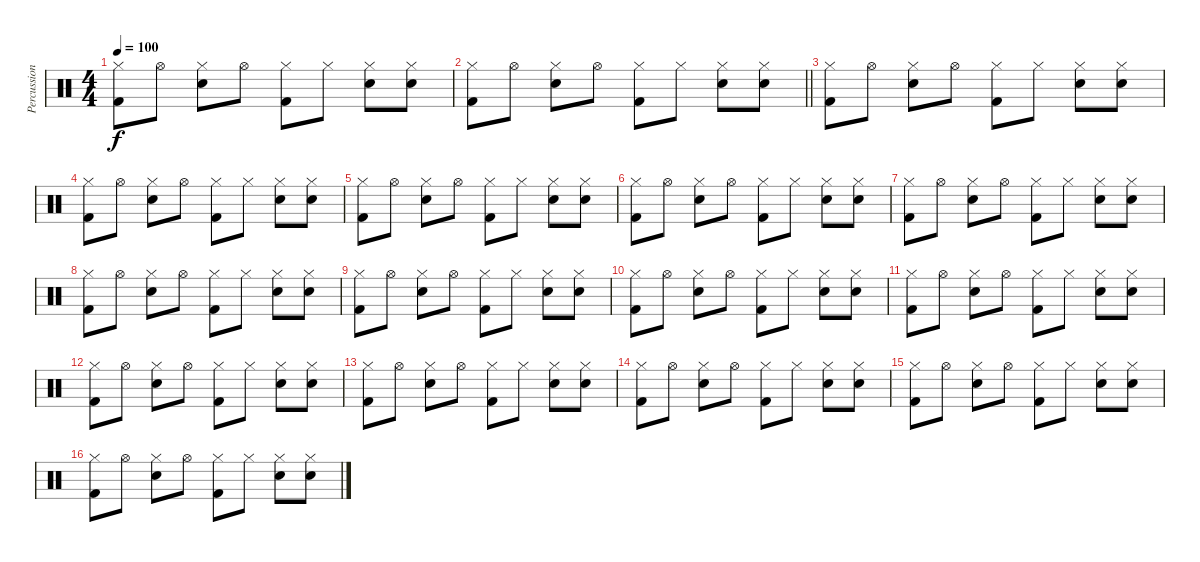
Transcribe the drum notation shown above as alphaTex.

\track ("Percussions" "Percussion") {instrument percussion}
\staff {score}
\articulation defaults
\ts (4 4)
\tempo 100
\clef neutral
\ks c
("Hi-Hat (closed)" "Kick (hit) 2").8{dy f} "Hi-Hat (open)".8 ("Hi-Hat (closed)" "Snare (hit) 2").8 "Hi-Hat (open)".8 ("Hi-Hat (closed)" "Kick (hit) 2").8 "Hi-Hat (closed)".8 ("Hi-Hat (closed)" "Snare (hit) 2").8 ("Hi-Hat (closed)" "Snare (hit) 2").8 |
\barLineRight lightlight
("Hi-Hat (closed)" "Kick (hit) 2").8 "Hi-Hat (open)".8 ("Hi-Hat (closed)" "Snare (hit) 2").8 "Hi-Hat (open)".8 ("Hi-Hat (closed)" "Kick (hit) 2").8 "Hi-Hat (closed)".8 ("Hi-Hat (closed)" "Snare (hit) 2").8 ("Hi-Hat (closed)" "Snare (hit) 2").8 |
("Hi-Hat (closed)" "Kick (hit) 2").8 "Hi-Hat (open)".8 ("Hi-Hat (closed)" "Snare (hit) 2").8 "Hi-Hat (open)".8 ("Hi-Hat (closed)" "Kick (hit) 2").8 "Hi-Hat (closed)".8 ("Hi-Hat (closed)" "Snare (hit) 2").8 ("Hi-Hat (closed)" "Snare (hit) 2").8 |
("Hi-Hat (closed)" "Kick (hit) 2").8 "Hi-Hat (open)".8 ("Hi-Hat (closed)" "Snare (hit) 2").8 "Hi-Hat (open)".8 ("Hi-Hat (closed)" "Kick (hit) 2").8 "Hi-Hat (closed)".8 ("Hi-Hat (closed)" "Snare (hit) 2").8 ("Hi-Hat (closed)" "Snare (hit) 2").8 |
("Hi-Hat (closed)" "Kick (hit) 2").8 "Hi-Hat (open)".8 ("Hi-Hat (closed)" "Snare (hit) 2").8 "Hi-Hat (open)".8 ("Hi-Hat (closed)" "Kick (hit) 2").8 "Hi-Hat (closed)".8 ("Hi-Hat (closed)" "Snare (hit) 2").8 ("Hi-Hat (closed)" "Snare (hit) 2").8 |
("Hi-Hat (closed)" "Kick (hit) 2").8 "Hi-Hat (open)".8 ("Hi-Hat (closed)" "Snare (hit) 2").8 "Hi-Hat (open)".8 ("Hi-Hat (closed)" "Kick (hit) 2").8 "Hi-Hat (closed)".8 ("Hi-Hat (closed)" "Snare (hit) 2").8 ("Hi-Hat (closed)" "Snare (hit) 2").8 |
("Hi-Hat (closed)" "Kick (hit) 2").8 "Hi-Hat (open)".8 ("Hi-Hat (closed)" "Snare (hit) 2").8 "Hi-Hat (open)".8 ("Hi-Hat (closed)" "Kick (hit) 2").8 "Hi-Hat (closed)".8 ("Hi-Hat (closed)" "Snare (hit) 2").8 ("Hi-Hat (closed)" "Snare (hit) 2").8 |
("Hi-Hat (closed)" "Kick (hit) 2").8 "Hi-Hat (open)".8 ("Hi-Hat (closed)" "Snare (hit) 2").8 "Hi-Hat (open)".8 ("Hi-Hat (closed)" "Kick (hit) 2").8 "Hi-Hat (closed)".8 ("Hi-Hat (closed)" "Snare (hit) 2").8 ("Hi-Hat (closed)" "Snare (hit) 2").8 |
("Hi-Hat (closed)" "Kick (hit) 2").8 "Hi-Hat (open)".8 ("Hi-Hat (closed)" "Snare (hit) 2").8 "Hi-Hat (open)".8 ("Hi-Hat (closed)" "Kick (hit) 2").8 "Hi-Hat (closed)".8 ("Hi-Hat (closed)" "Snare (hit) 2").8 ("Hi-Hat (closed)" "Snare (hit) 2").8 |
("Hi-Hat (closed)" "Kick (hit) 2").8 "Hi-Hat (open)".8 ("Hi-Hat (closed)" "Snare (hit) 2").8 "Hi-Hat (open)".8 ("Hi-Hat (closed)" "Kick (hit) 2").8 "Hi-Hat (closed)".8 ("Hi-Hat (closed)" "Snare (hit) 2").8 ("Hi-Hat (closed)" "Snare (hit) 2").8 |
("Hi-Hat (closed)" "Kick (hit) 2").8 "Hi-Hat (open)".8 ("Hi-Hat (closed)" "Snare (hit) 2").8 "Hi-Hat (open)".8 ("Hi-Hat (closed)" "Kick (hit) 2").8 "Hi-Hat (closed)".8 ("Hi-Hat (closed)" "Snare (hit) 2").8 ("Hi-Hat (closed)" "Snare (hit) 2").8 |
("Hi-Hat (closed)" "Kick (hit) 2").8 "Hi-Hat (open)".8 ("Hi-Hat (closed)" "Snare (hit) 2").8 "Hi-Hat (open)".8 ("Hi-Hat (closed)" "Kick (hit) 2").8 "Hi-Hat (closed)".8 ("Hi-Hat (closed)" "Snare (hit) 2").8 ("Hi-Hat (closed)" "Snare (hit) 2").8 |
("Hi-Hat (closed)" "Kick (hit) 2").8 "Hi-Hat (open)".8 ("Hi-Hat (closed)" "Snare (hit) 2").8 "Hi-Hat (open)".8 ("Hi-Hat (closed)" "Kick (hit) 2").8 "Hi-Hat (closed)".8 ("Hi-Hat (closed)" "Snare (hit) 2").8 ("Hi-Hat (closed)" "Snare (hit) 2").8 |
("Hi-Hat (closed)" "Kick (hit) 2").8 "Hi-Hat (open)".8 ("Hi-Hat (closed)" "Snare (hit) 2").8 "Hi-Hat (open)".8 ("Hi-Hat (closed)" "Kick (hit) 2").8 "Hi-Hat (closed)".8 ("Hi-Hat (closed)" "Snare (hit) 2").8 ("Hi-Hat (closed)" "Snare (hit) 2").8 |
("Hi-Hat (closed)" "Kick (hit) 2").8 "Hi-Hat (open)".8 ("Hi-Hat (closed)" "Snare (hit) 2").8 "Hi-Hat (open)".8 ("Hi-Hat (closed)" "Kick (hit) 2").8 "Hi-Hat (closed)".8 ("Hi-Hat (closed)" "Snare (hit) 2").8 ("Hi-Hat (closed)" "Snare (hit) 2").8 |
("Hi-Hat (closed)" "Kick (hit) 2").8 "Hi-Hat (open)".8 ("Hi-Hat (closed)" "Snare (hit) 2").8 "Hi-Hat (open)".8 ("Hi-Hat (closed)" "Kick (hit) 2").8 "Hi-Hat (closed)".8 ("Hi-Hat (closed)" "Snare (hit) 2").8 ("Hi-Hat (closed)" "Snare (hit) 2").8
